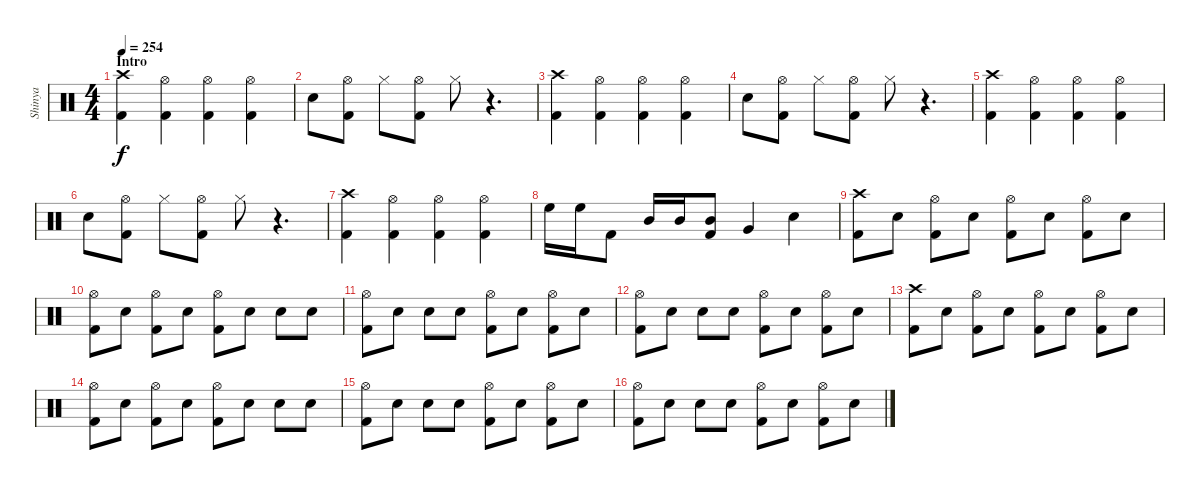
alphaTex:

\track ("Shinya" "Shinya") {instrument percussion}
\staff {score}
\articulation defaults
\ts (4 4)
\section ("" "Intro")
\tempo 254
\clef neutral
\ks c
("Kick (hit) 2" "Crash high (hit)").4{dy f} ("Hi-Hat (open)" "Kick (hit) 2").4 ("Hi-Hat (open)" "Kick (hit) 2").4 ("Hi-Hat (open)" "Kick (hit) 2").4 |
"Electric Snare (hit)".8 ("Hi-Hat (open)" "Kick (hit) 2").8 "Hi-Hat (closed)".8 ("Hi-Hat (open)" "Kick (hit) 2").8 "Hi-Hat (closed)".8 r.4{d} |
("Kick (hit) 2" "Crash high (hit)").4 ("Hi-Hat (open)" "Kick (hit) 2").4 ("Hi-Hat (open)" "Kick (hit) 2").4 ("Hi-Hat (open)" "Kick (hit) 2").4 |
"Electric Snare (hit)".8 ("Hi-Hat (open)" "Kick (hit) 2").8 "Hi-Hat (closed)".8 ("Hi-Hat (open)" "Kick (hit) 2").8 "Hi-Hat (closed)".8 r.4{d} |
("Kick (hit) 2" "Crash high (hit)").4 ("Hi-Hat (open)" "Kick (hit) 2").4 ("Hi-Hat (open)" "Kick (hit) 2").4 ("Hi-Hat (open)" "Kick (hit) 2").4 |
"Electric Snare (hit)".8 ("Hi-Hat (open)" "Kick (hit) 2").8 "Hi-Hat (closed)".8 ("Hi-Hat (open)" "Kick (hit) 2").8 "Hi-Hat (closed)".8 r.4{d} |
("Kick (hit) 2" "Crash high (hit)").4 ("Hi-Hat (open)" "Kick (hit) 2").4 ("Hi-Hat (open)" "Kick (hit) 2").4 ("Hi-Hat (open)" "Kick (hit) 2").4 |
"High Floor Tom (hit)".16 "High Floor Tom (hit)".16 "Kick (hit) 2".8 "Mid Tom (hit)".16 "Mid Tom (hit)".16 ("Kick (hit) 2" "Mid Tom (hit)").8 "Very Low Tom (hit)".4 "Electric Snare (hit)".4 |
("Crash high (hit)" "Kick (hit) 2").8 "Electric Snare (hit)".8 ("Hi-Hat (open)" "Kick (hit) 2").8 "Electric Snare (hit)".8 ("Hi-Hat (open)" "Kick (hit) 2").8 "Electric Snare (hit)".8 ("Hi-Hat (open)" "Kick (hit) 2").8 "Electric Snare (hit)".8 |
("Hi-Hat (open)" "Kick (hit) 2").8 "Electric Snare (hit)".8 ("Hi-Hat (open)" "Kick (hit) 2").8 "Electric Snare (hit)".8 ("Hi-Hat (open)" "Kick (hit) 2").8 "Electric Snare (hit)".8 "Electric Snare (hit)".8 "Electric Snare (hit)".8 |
("Hi-Hat (open)" "Kick (hit) 2").8 "Electric Snare (hit)".8 "Electric Snare (hit)".8 "Electric Snare (hit)".8 ("Hi-Hat (open)" "Kick (hit) 2").8 "Electric Snare (hit)".8 ("Hi-Hat (open)" "Kick (hit) 2").8 "Electric Snare (hit)".8 |
("Hi-Hat (open)" "Kick (hit) 2").8 "Electric Snare (hit)".8 "Electric Snare (hit)".8 "Electric Snare (hit)".8 ("Hi-Hat (open)" "Kick (hit) 2").8 "Electric Snare (hit)".8 ("Hi-Hat (open)" "Kick (hit) 2").8 "Electric Snare (hit)".8 |
("Crash high (hit)" "Kick (hit) 2").8 "Electric Snare (hit)".8 ("Hi-Hat (open)" "Kick (hit) 2").8 "Electric Snare (hit)".8 ("Hi-Hat (open)" "Kick (hit) 2").8 "Electric Snare (hit)".8 ("Hi-Hat (open)" "Kick (hit) 2").8 "Electric Snare (hit)".8 |
("Hi-Hat (open)" "Kick (hit) 2").8 "Electric Snare (hit)".8 ("Hi-Hat (open)" "Kick (hit) 2").8 "Electric Snare (hit)".8 ("Hi-Hat (open)" "Kick (hit) 2").8 "Electric Snare (hit)".8 "Electric Snare (hit)".8 "Electric Snare (hit)".8 |
("Hi-Hat (open)" "Kick (hit) 2").8 "Electric Snare (hit)".8 "Electric Snare (hit)".8 "Electric Snare (hit)".8 ("Hi-Hat (open)" "Kick (hit) 2").8 "Electric Snare (hit)".8 ("Hi-Hat (open)" "Kick (hit) 2").8 "Electric Snare (hit)".8 |
("Hi-Hat (open)" "Kick (hit) 2").8 "Electric Snare (hit)".8 "Electric Snare (hit)".8 "Electric Snare (hit)".8 ("Hi-Hat (open)" "Kick (hit) 2").8 "Electric Snare (hit)".8 ("Hi-Hat (open)" "Kick (hit) 2").8 "Electric Snare (hit)".8
